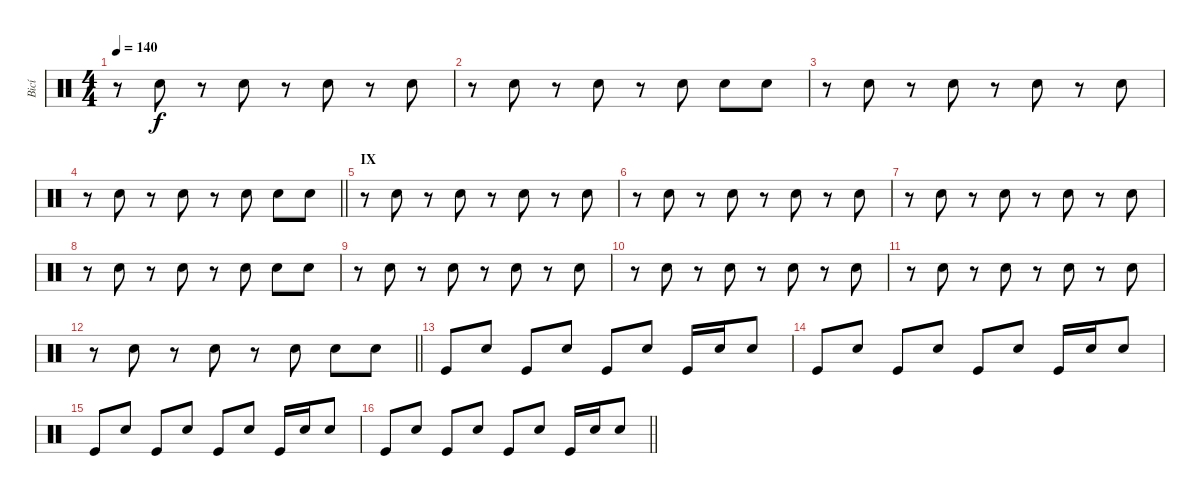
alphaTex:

\track ("Bicí" "Bicí") {instrument percussion}
\staff {score}
\articulation defaults
\ts (4 4)
\tempo 140
\clef neutral
\ks c
r.8{dy f} "Electric Snare (hit)".8 r.8 "Electric Snare (hit)".8 r.8 "Electric Snare (hit)".8 r.8 "Electric Snare (hit)".8 |
r.8 "Electric Snare (hit)".8 r.8 "Electric Snare (hit)".8 r.8 "Electric Snare (hit)".8 "Electric Snare (hit)".8 "Electric Snare (hit)".8 |
r.8 "Electric Snare (hit)".8 r.8 "Electric Snare (hit)".8 r.8 "Electric Snare (hit)".8 r.8 "Electric Snare (hit)".8 |
\barLineRight lightlight
r.8 "Electric Snare (hit)".8 r.8 "Electric Snare (hit)".8 r.8 "Electric Snare (hit)".8 "Electric Snare (hit)".8 "Electric Snare (hit)".8 |
\section ("" "IX")
r.8 "Electric Snare (hit)".8 r.8 "Electric Snare (hit)".8 r.8 "Electric Snare (hit)".8 r.8 "Electric Snare (hit)".8 |
r.8 "Electric Snare (hit)".8 r.8 "Electric Snare (hit)".8 r.8 "Electric Snare (hit)".8 r.8 "Electric Snare (hit)".8 |
r.8 "Electric Snare (hit)".8 r.8 "Electric Snare (hit)".8 r.8 "Electric Snare (hit)".8 r.8 "Electric Snare (hit)".8 |
r.8 "Electric Snare (hit)".8 r.8 "Electric Snare (hit)".8 r.8 "Electric Snare (hit)".8 "Electric Snare (hit)".8 "Electric Snare (hit)".8 |
r.8 "Electric Snare (hit)".8 r.8 "Electric Snare (hit)".8 r.8 "Electric Snare (hit)".8 r.8 "Electric Snare (hit)".8 |
r.8 "Electric Snare (hit)".8 r.8 "Electric Snare (hit)".8 r.8 "Electric Snare (hit)".8 r.8 "Electric Snare (hit)".8 |
r.8 "Electric Snare (hit)".8 r.8 "Electric Snare (hit)".8 r.8 "Electric Snare (hit)".8 r.8 "Electric Snare (hit)".8 |
\barLineRight lightlight
r.8 "Electric Snare (hit)".8 r.8 "Electric Snare (hit)".8 r.8 "Electric Snare (hit)".8 "Electric Snare (hit)".8 "Electric Snare (hit)".8 |
"Kick (hit)".8 "Electric Snare (hit)".8 "Kick (hit)".8 "Electric Snare (hit)".8 "Kick (hit)".8 "Electric Snare (hit)".8 "Kick (hit)".16 "Electric Snare (hit)".16 "Electric Snare (hit)".8 |
"Kick (hit)".8 "Electric Snare (hit)".8 "Kick (hit)".8 "Electric Snare (hit)".8 "Kick (hit)".8 "Electric Snare (hit)".8 "Kick (hit)".16 "Electric Snare (hit)".16 "Electric Snare (hit)".8 |
"Kick (hit)".8 "Electric Snare (hit)".8 "Kick (hit)".8 "Electric Snare (hit)".8 "Kick (hit)".8 "Electric Snare (hit)".8 "Kick (hit)".16 "Electric Snare (hit)".16 "Electric Snare (hit)".8 |
\barLineRight lightlight "Kick (hit)".8 "Electric Snare (hit)".8 "Kick (hit)".8 "Electric Snare (hit)".8 "Kick (hit)".8 "Electric Snare (hit)".8 "Kick (hit)".16 "Electric Snare (hit)".16 "Electric Snare (hit)".8
